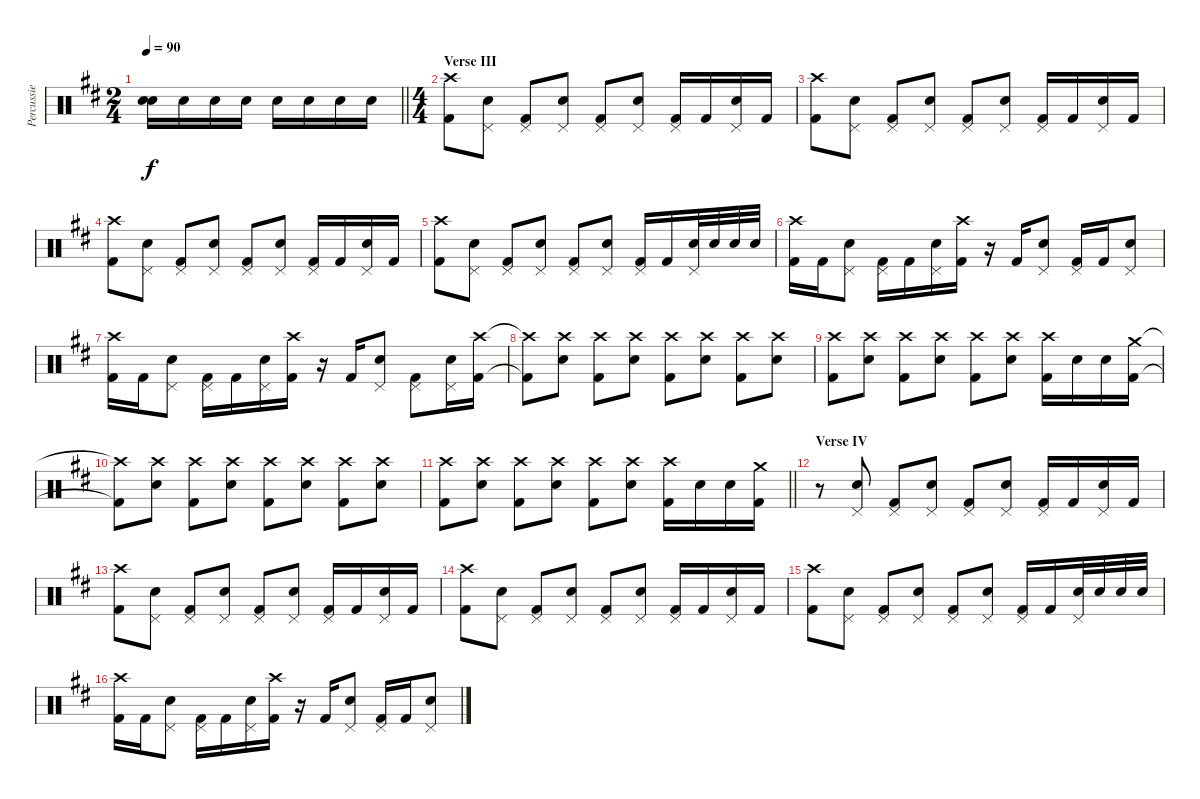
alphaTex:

\track ("Percussie" "Percussie") {instrument percussion}
\staff {score}
\articulation defaults
\ts (2 4)
\tempo 90
\clef neutral
\barLineRight lightlight
\ks bminor
("Snare (hit)"{t} "Snare (hit)"{t}).16{dy f} "Electric Snare (hit)".16 "Electric Snare (hit)".16 "Electric Snare (hit)".16 "Electric Snare (hit)".16 "Electric Snare (hit)".16 "Electric Snare (hit)".16 "Electric Snare (hit)".16 |
\ts (4 4)
\section ("" "Verse III")
("Crash high (hit)" "Kick (hit) 2").8 ("Pedal Hi-Hat (hit)" "Electric Snare (hit)").8 ("Pedal Hi-Hat (hit)" "Kick (hit) 2").8 ("Pedal Hi-Hat (hit)" "Electric Snare (hit)").8 ("Pedal Hi-Hat (hit)" "Kick (hit) 2").8 ("Pedal Hi-Hat (hit)" "Electric Snare (hit)").8 ("Pedal Hi-Hat (hit)" "Kick (hit) 2").16 "Kick (hit) 2".16 ("Pedal Hi-Hat (hit)" "Electric Snare (hit)").16 "Kick (hit) 2".16 |
("Crash high (hit)" "Kick (hit) 2").8 ("Pedal Hi-Hat (hit)" "Electric Snare (hit)").8 ("Pedal Hi-Hat (hit)" "Kick (hit) 2").8 ("Pedal Hi-Hat (hit)" "Electric Snare (hit)").8 ("Pedal Hi-Hat (hit)" "Kick (hit) 2").8 ("Pedal Hi-Hat (hit)" "Electric Snare (hit)").8 ("Pedal Hi-Hat (hit)" "Kick (hit) 2").16 "Kick (hit) 2".16 ("Pedal Hi-Hat (hit)" "Electric Snare (hit)").16 "Kick (hit) 2".16 |
("Crash high (hit)" "Kick (hit) 2").8 ("Pedal Hi-Hat (hit)" "Electric Snare (hit)").8 ("Pedal Hi-Hat (hit)" "Kick (hit) 2").8 ("Pedal Hi-Hat (hit)" "Electric Snare (hit)").8 ("Pedal Hi-Hat (hit)" "Kick (hit) 2").8 ("Pedal Hi-Hat (hit)" "Electric Snare (hit)").8 ("Pedal Hi-Hat (hit)" "Kick (hit) 2").16 "Kick (hit) 2".16 ("Pedal Hi-Hat (hit)" "Electric Snare (hit)").16 "Kick (hit) 2".16 |
("Crash high (hit)" "Kick (hit) 2").8 ("Pedal Hi-Hat (hit)" "Electric Snare (hit)").8 ("Pedal Hi-Hat (hit)" "Kick (hit) 2").8 ("Pedal Hi-Hat (hit)" "Electric Snare (hit)").8 ("Pedal Hi-Hat (hit)" "Kick (hit) 2").8 ("Pedal Hi-Hat (hit)" "Electric Snare (hit)").8 ("Pedal Hi-Hat (hit)" "Kick (hit) 2").16 "Kick (hit) 2".16 ("Pedal Hi-Hat (hit)" "Electric Snare (hit)").32 "Electric Snare (hit)".32 "Electric Snare (hit)".32 "Electric Snare (hit)".32 |
("Crash high (hit)" "Kick (hit) 2").16 "Kick (hit) 2".16 ("Pedal Hi-Hat (hit)" "Electric Snare (hit)").8 ("Pedal Hi-Hat (hit)" "Kick (hit) 2").16 "Kick (hit) 2".16 ("Pedal Hi-Hat (hit)" "Electric Snare (hit)").16 ("Crash high (hit)" "Kick (hit) 2").16 r.16 "Kick (hit) 2".16 ("Pedal Hi-Hat (hit)" "Electric Snare (hit)").8 ("Pedal Hi-Hat (hit)" "Kick (hit) 2").16 "Kick (hit) 2".16 ("Pedal Hi-Hat (hit)" "Electric Snare (hit)").8 |
("Crash high (hit)" "Kick (hit) 2").16 "Kick (hit) 2".16 ("Pedal Hi-Hat (hit)" "Electric Snare (hit)").8 ("Pedal Hi-Hat (hit)" "Kick (hit) 2").16 "Kick (hit) 2".16 ("Pedal Hi-Hat (hit)" "Electric Snare (hit)").16 ("Crash high (hit)" "Kick (hit) 2").16 r.16 "Kick (hit) 2".16 ("Pedal Hi-Hat (hit)" "Electric Snare (hit)").8 ("Pedal Hi-Hat (hit)" "Kick (hit) 2").8 ("Pedal Hi-Hat (hit)" "Electric Snare (hit)").16 ("Crash high (hit)" "Kick (hit) 2").16 |
("Crash high (hit)"{t} "Kick (hit) 2"{t}).8 ("Crash high (hit)" "Electric Snare (hit)").8 ("Crash high (hit)" "Kick (hit) 2").8 ("Crash high (hit)" "Electric Snare (hit)").8 ("Crash high (hit)" "Kick (hit) 2").8 ("Crash high (hit)" "Electric Snare (hit)").8 ("Crash high (hit)" "Kick (hit) 2").8 ("Crash high (hit)" "Electric Snare (hit)").8 |
("Crash high (hit)" "Kick (hit) 2").8 ("Crash high (hit)" "Electric Snare (hit)").8 ("Crash high (hit)" "Kick (hit) 2").8 ("Crash high (hit)" "Electric Snare (hit)").8 ("Crash high (hit)" "Kick (hit) 2").8 ("Crash high (hit)" "Electric Snare (hit)").8 ("Crash high (hit)" "Kick (hit) 2").16 "Electric Snare (hit)".16 "Electric Snare (hit)".16 ("Crash medium (hit)" "Kick (hit) 2").16 |
("Crash high (hit)"{t} "Kick (hit) 2"{t}).8 ("Crash high (hit)" "Electric Snare (hit)").8 ("Crash high (hit)" "Kick (hit) 2").8 ("Crash high (hit)" "Electric Snare (hit)").8 ("Crash high (hit)" "Kick (hit) 2").8 ("Crash high (hit)" "Electric Snare (hit)").8 ("Crash high (hit)" "Kick (hit) 2").8 ("Crash high (hit)" "Electric Snare (hit)").8 |
\barLineRight lightlight
("Crash high (hit)" "Kick (hit) 2").8 ("Crash high (hit)" "Electric Snare (hit)").8 ("Crash high (hit)" "Kick (hit) 2").8 ("Crash high (hit)" "Electric Snare (hit)").8 ("Crash high (hit)" "Kick (hit) 2").8 ("Crash high (hit)" "Electric Snare (hit)").8 ("Crash high (hit)" "Kick (hit) 2").16 "Electric Snare (hit)".16 "Electric Snare (hit)".16 ("Crash medium (hit)" "Kick (hit) 2").16 |
\section ("" "Verse IV")
r.8 ("Pedal Hi-Hat (hit)" "Electric Snare (hit)").8 ("Pedal Hi-Hat (hit)" "Kick (hit) 2").8 ("Pedal Hi-Hat (hit)" "Electric Snare (hit)").8 ("Pedal Hi-Hat (hit)" "Kick (hit) 2").8 ("Pedal Hi-Hat (hit)" "Electric Snare (hit)").8 ("Pedal Hi-Hat (hit)" "Kick (hit) 2").16 "Kick (hit) 2".16 ("Pedal Hi-Hat (hit)" "Electric Snare (hit)").16 "Kick (hit) 2".16 |
("Crash high (hit)" "Kick (hit) 2").8 ("Pedal Hi-Hat (hit)" "Electric Snare (hit)").8 ("Pedal Hi-Hat (hit)" "Kick (hit) 2").8 ("Pedal Hi-Hat (hit)" "Electric Snare (hit)").8 ("Pedal Hi-Hat (hit)" "Kick (hit) 2").8 ("Pedal Hi-Hat (hit)" "Electric Snare (hit)").8 ("Pedal Hi-Hat (hit)" "Kick (hit) 2").16 "Kick (hit) 2".16 ("Pedal Hi-Hat (hit)" "Electric Snare (hit)").16 "Kick (hit) 2".16 |
("Crash high (hit)" "Kick (hit) 2").8 ("Pedal Hi-Hat (hit)" "Electric Snare (hit)").8 ("Pedal Hi-Hat (hit)" "Kick (hit) 2").8 ("Pedal Hi-Hat (hit)" "Electric Snare (hit)").8 ("Pedal Hi-Hat (hit)" "Kick (hit) 2").8 ("Pedal Hi-Hat (hit)" "Electric Snare (hit)").8 ("Pedal Hi-Hat (hit)" "Kick (hit) 2").16 "Kick (hit) 2".16 ("Pedal Hi-Hat (hit)" "Electric Snare (hit)").16 "Kick (hit) 2".16 |
("Crash high (hit)" "Kick (hit) 2").8 ("Pedal Hi-Hat (hit)" "Electric Snare (hit)").8 ("Pedal Hi-Hat (hit)" "Kick (hit) 2").8 ("Pedal Hi-Hat (hit)" "Electric Snare (hit)").8 ("Pedal Hi-Hat (hit)" "Kick (hit) 2").8 ("Pedal Hi-Hat (hit)" "Electric Snare (hit)").8 ("Pedal Hi-Hat (hit)" "Kick (hit) 2").16 "Kick (hit) 2".16 ("Pedal Hi-Hat (hit)" "Electric Snare (hit)").32 "Electric Snare (hit)".32 "Electric Snare (hit)".32 "Electric Snare (hit)".32 |
("Crash high (hit)" "Kick (hit) 2").16 "Kick (hit) 2".16 ("Pedal Hi-Hat (hit)" "Electric Snare (hit)").8 ("Pedal Hi-Hat (hit)" "Kick (hit) 2").16 "Kick (hit) 2".16 ("Pedal Hi-Hat (hit)" "Electric Snare (hit)").16 ("Crash high (hit)" "Kick (hit) 2").16 r.16 "Kick (hit) 2".16 ("Pedal Hi-Hat (hit)" "Electric Snare (hit)").8 ("Pedal Hi-Hat (hit)" "Kick (hit) 2").16 "Kick (hit) 2".16 ("Pedal Hi-Hat (hit)" "Electric Snare (hit)").8
